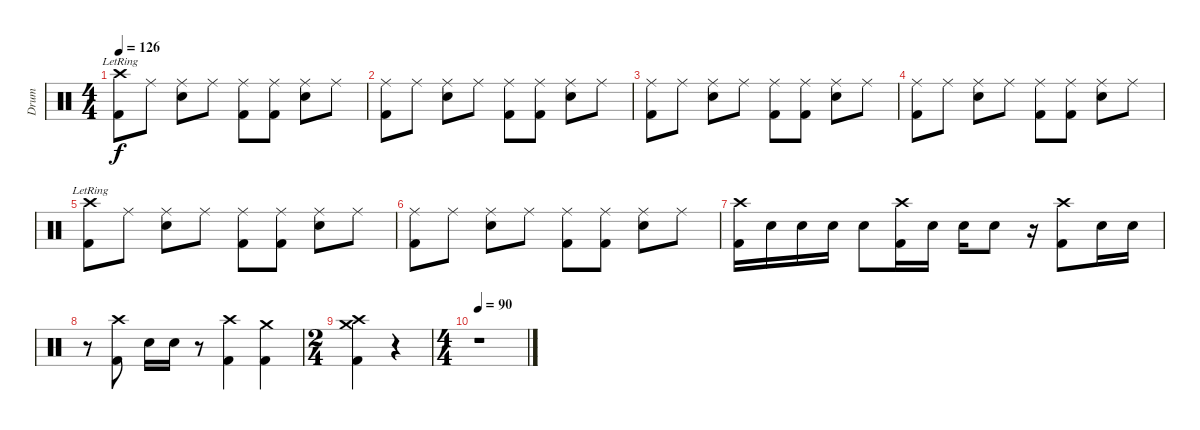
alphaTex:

\track ("Drum" "Drum") {instrument percussion}
\staff {score}
\articulation defaults
\ts (4 4)
\tempo 126
\clef neutral
\ks c
("Crash high (hit)"{lr} "Kick (hit) 2").8{dy f} "Ride (middle)".8 ("Ride (middle)" "Snare (hit) 2").8 "Ride (middle)".8 ("Ride (middle)" "Kick (hit) 2").8 ("Ride (middle)" "Kick (hit) 2").8 ("Ride (middle)" "Snare (hit) 2").8 "Ride (middle)".8 |
("Ride (middle)" "Kick (hit) 2").8 "Ride (middle)".8 ("Ride (middle)" "Snare (hit) 2").8 "Ride (middle)".8 ("Ride (middle)" "Kick (hit) 2").8 ("Ride (middle)" "Kick (hit) 2").8 ("Ride (middle)" "Snare (hit) 2").8 "Ride (middle)".8 |
("Ride (middle)" "Kick (hit) 2").8 "Ride (middle)".8 ("Ride (middle)" "Snare (hit) 2").8 "Ride (middle)".8 ("Ride (middle)" "Kick (hit) 2").8 ("Ride (middle)" "Kick (hit) 2").8 ("Ride (middle)" "Snare (hit) 2").8 "Ride (middle)".8 |
("Ride (middle)" "Kick (hit) 2").8 "Ride (middle)".8 ("Ride (middle)" "Snare (hit) 2").8 "Ride (middle)".8 ("Ride (middle)" "Kick (hit) 2").8 ("Ride (middle)" "Kick (hit) 2").8 ("Ride (middle)" "Snare (hit) 2").8 "Ride (middle)".8 |
("Crash high (hit)"{lr} "Kick (hit) 2").8 "Ride (middle)".8 ("Ride (middle)" "Snare (hit) 2").8 "Ride (middle)".8 ("Ride (middle)" "Kick (hit) 2").8 ("Ride (middle)" "Kick (hit) 2").8 ("Ride (middle)" "Snare (hit) 2").8 "Ride (middle)".8 |
("Ride (middle)" "Kick (hit) 2").8 "Ride (middle)".8 ("Ride (middle)" "Snare (hit) 2").8 "Ride (middle)".8 ("Ride (middle)" "Kick (hit) 2").8 ("Ride (middle)" "Kick (hit) 2").8 ("Ride (middle)" "Snare (hit) 2").8 "Ride (middle)".8 |
("Crash high (hit)" "Kick (hit) 2").16 "Snare (hit) 2".16 "Snare (hit) 2".16 "Snare (hit) 2".16 "Snare (hit) 2".8 ("Crash high (hit)" "Kick (hit) 2").16 "Snare (hit) 2".16 "Snare (hit) 2".16 "Snare (hit) 2".8 r.16 ("Crash high (hit)" "Kick (hit) 2").8 "Snare (hit) 2".16 "Snare (hit) 2".16 |
r.8 ("Crash high (hit)" "Kick (hit) 2").8 "Snare (hit) 2".16 "Snare (hit) 2".16 r.8 ("Crash high (hit)" "Kick (hit) 2").4 ("Crash medium (hit)" "Kick (hit) 2").4 |
\ts (2 4)
("Crash high (hit)" "Crash medium (hit)" "Kick (hit) 2").4 r.4 |
\ts (4 4)
\tempo 90
r.1
